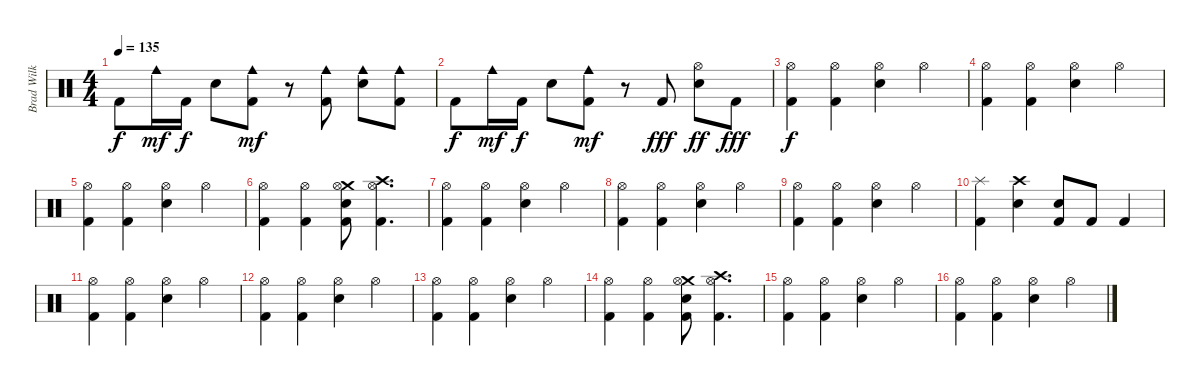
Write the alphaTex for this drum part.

\track ("Brad Wilk" "Brad Wilk") {instrument percussion}
\staff {score}
\articulation defaults
\ts (4 4)
\tempo 135
\clef neutral
\ks c "Kick (hit) 2".8{dy f} "Cowbell medium (hit)".16{dy mf} "Kick (hit) 2".16{dy f} "Electric Snare (hit)".8
("Cowbell medium (hit)" "Kick (hit) 2").8{dy mf} r.8 ("Cowbell medium (hit)" "Kick (hit) 2").8 ("Cowbell medium (hit)" "Electric Snare (hit)").8 ("Cowbell medium (hit)" "Kick (hit) 2").8 |
"Kick (hit) 2".8{dy f} "Cowbell medium (hit)".16{dy mf} "Kick (hit) 2".16{dy f} "Electric Snare (hit)".8 ("Cowbell medium (hit)" "Kick (hit) 2").8{dy mf} r.8 "Kick (hit) 2".8{dy fff} ("Hi-Hat (open)" "Electric Snare (hit)").8{dy ff} "Kick (hit) 2".8{dy fff} |
("Hi-Hat (open)" "Kick (hit) 2").4{dy f} ("Hi-Hat (open)" "Kick (hit) 2").4 ("Hi-Hat (open)" "Electric Snare (hit)").4 "Hi-Hat (open)".4 |
("Hi-Hat (open)" "Kick (hit) 2").4 ("Hi-Hat (open)" "Kick (hit) 2").4 ("Hi-Hat (open)" "Electric Snare (hit)").4 "Hi-Hat (open)".4 |
("Hi-Hat (open)" "Kick (hit) 2").4 ("Hi-Hat (open)" "Kick (hit) 2").4 ("Hi-Hat (open)" "Electric Snare (hit)").4 "Hi-Hat (open)".4 |
("Hi-Hat (open)" "Kick (hit) 2").4 ("Hi-Hat (open)" "Kick (hit) 2").4 ("Crash medium (hit)" "Hi-Hat (open)" "Electric Snare (hit)" "Kick (hit) 2").8 ("Crash high (hit)" "Hi-Hat (open)" "Kick (hit) 2").4{d} |
("Hi-Hat (open)" "Kick (hit) 2").4 ("Hi-Hat (open)" "Kick (hit) 2").4 ("Hi-Hat (open)" "Electric Snare (hit)").4 "Hi-Hat (open)".4 |
("Hi-Hat (open)" "Kick (hit) 2").4 ("Hi-Hat (open)" "Kick (hit) 2").4 ("Hi-Hat (open)" "Electric Snare (hit)").4 "Hi-Hat (open)".4 |
("Hi-Hat (open)" "Kick (hit) 2").4 ("Hi-Hat (open)" "Kick (hit) 2").4 ("Hi-Hat (open)" "Electric Snare (hit)").4 "Hi-Hat (open)".4 |
("Splash (hit)" "Kick (hit) 2").4 ("Crash high (hit)" "Electric Snare (hit)").4 ("Electric Snare (hit)" "Kick (hit) 2").8 "Kick (hit) 2".8 "Kick (hit) 2".4 |
("Hi-Hat (open)" "Kick (hit) 2").4 ("Hi-Hat (open)" "Kick (hit) 2").4 ("Hi-Hat (open)" "Electric Snare (hit)").4 "Hi-Hat (open)".4 |
("Hi-Hat (open)" "Kick (hit) 2").4 ("Hi-Hat (open)" "Kick (hit) 2").4 ("Hi-Hat (open)" "Electric Snare (hit)").4 "Hi-Hat (open)".4 |
("Hi-Hat (open)" "Kick (hit) 2").4 ("Hi-Hat (open)" "Kick (hit) 2").4 ("Hi-Hat (open)" "Electric Snare (hit)").4 "Hi-Hat (open)".4 |
("Hi-Hat (open)" "Kick (hit) 2").4 ("Hi-Hat (open)" "Kick (hit) 2").4 ("Crash medium (hit)" "Hi-Hat (open)" "Electric Snare (hit)" "Kick (hit) 2").8 ("Crash high (hit)" "Hi-Hat (open)" "Kick (hit) 2").4{d} |
("Hi-Hat (open)" "Kick (hit) 2").4 ("Hi-Hat (open)" "Kick (hit) 2").4 ("Hi-Hat (open)" "Electric Snare (hit)").4 "Hi-Hat (open)".4 |
("Hi-Hat (open)" "Kick (hit) 2").4 ("Hi-Hat (open)" "Kick (hit) 2").4 ("Hi-Hat (open)" "Electric Snare (hit)").4 "Hi-Hat (open)".4
